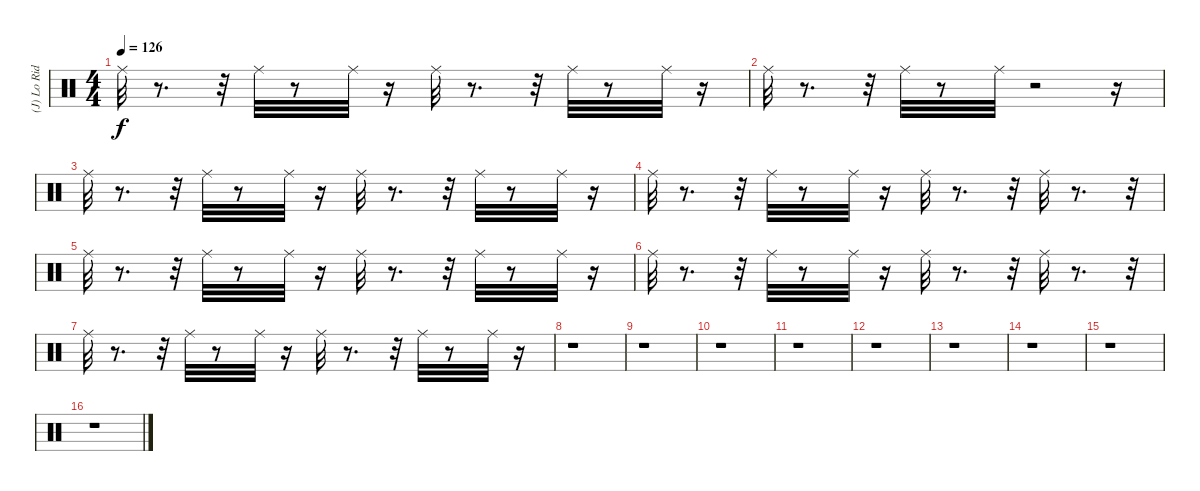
\track ("(J) Lo Ride Cymbal" "(J) Lo Rid") {instrument percussion}
\staff {score}
\articulation defaults
\ts (4 4)
\tempo 126
\clef neutral
\ks c "Ride (middle)".32{dy f}
r.8{d} r.32 "Ride (middle)".32 r.8 "Ride (middle)".32 r.16 "Ride (middle)".32 r.8{d} r.32 "Ride (middle)".32 r.8 "Ride (middle)".32 r.16 |
"Ride (middle)".32 r.8{d} r.32 "Ride (middle)".32 r.8 "Ride (middle)".32 r.2 r.16 |
"Ride (middle)".32 r.8{d} r.32 "Ride (middle)".32 r.8 "Ride (middle)".32 r.16 "Ride (middle)".32 r.8{d} r.32 "Ride (middle)".32 r.8 "Ride (middle)".32 r.16 |
"Ride (middle)".32 r.8{d} r.32 "Ride (middle)".32 r.8 "Ride (middle)".32 r.16 "Ride (middle)".32 r.8{d} r.32 "Ride (middle)".32 r.8{d} r.32 |
"Ride (middle)".32 r.8{d} r.32 "Ride (middle)".32 r.8 "Ride (middle)".32 r.16 "Ride (middle)".32 r.8{d} r.32 "Ride (middle)".32 r.8 "Ride (middle)".32 r.16 |
"Ride (middle)".32 r.8{d} r.32 "Ride (middle)".32 r.8 "Ride (middle)".32 r.16 "Ride (middle)".32 r.8{d} r.32 "Ride (middle)".32 r.8{d} r.32 |
"Ride (middle)".32 r.8{d} r.32 "Ride (middle)".32 r.8 "Ride (middle)".32 r.16 "Ride (middle)".32 r.8{d} r.32 "Ride (middle)".32 r.8 "Ride (middle)".32 r.16 |
r.1 |
r.1 |
r.1 |
r.1 |
r.1 |
r.1 |
r.1 |
r.1 |
r.1
